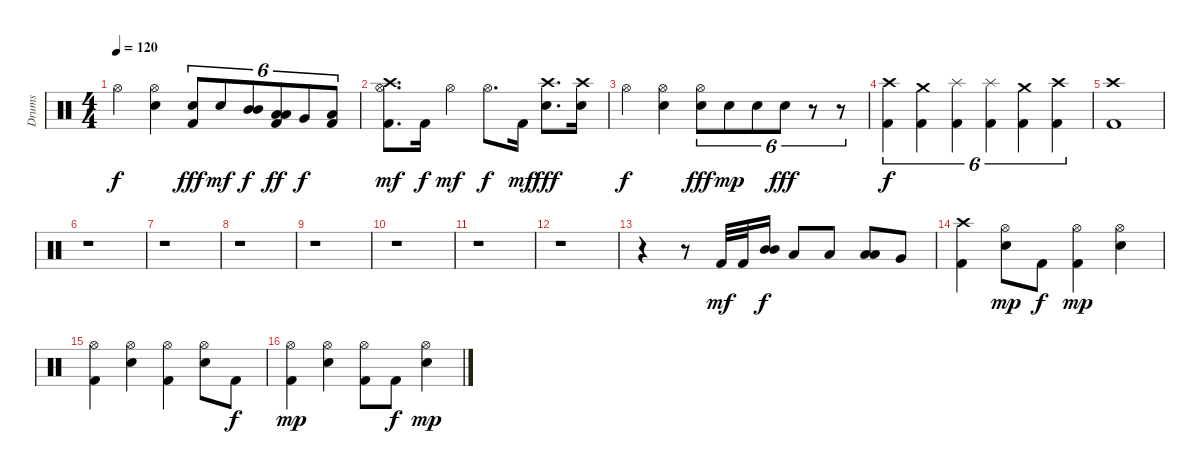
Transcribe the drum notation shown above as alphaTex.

\track ("Drums" "Drums") {instrument percussion}
\staff {score}
\articulation defaults
\ts (4 4)
\tempo 120
\clef neutral
\ks c "Hi-Hat (open)".4{dy f}
("Hi-Hat (open)" "Snare (hit) 2").4 ("Snare (hit) 2" "Kick (hit) 2").8{tu (6 4) bd 60 dy fff} "Snare (hit) 2".8{tu (6 4) dy mf} ("Mid Tom (hit)" "Mid Tom (hit)").8{tu (6 4) bd 120 dy f} ("Low Tom (hit)" "Low Tom (hit)" "Kick (hit) 2").8{tu (6 4) bd 120 dy ff} "Very Low Tom (hit)".8{tu (6 4) dy f} ("Low Floor Tom (hit)" "Kick (hit) 2").8{tu (6 4)} |
("Hi-Hat (open)" "Crash high (hit)" "Kick (hit) 2").8{d dy mf} "Kick (hit) 2".16{dy f} "Hi-Hat (open)".4{dy mf} "Hi-Hat (open)".8{d dy f} "Kick (hit) 2".16{dy mf} ("Crash high (hit)" "Snare (hit) 2").8{d dy fff} ("Crash high (hit)" "Snare (hit) 2").16 |
"Hi-Hat (open)".4{dy f} ("Hi-Hat (open)" "Snare (hit) 2").4 ("Hi-Hat (open)" "Snare (hit) 2").8{tu (6 4) dy fff} "Snare (hit) 2".8{tu (6 4) dy mp} "Snare (hit) 2".8{tu (6 4)} "Snare (hit) 2".8{tu (6 4) dy fff} r.8{tu (6 4)} r.8{tu (6 4)} |
("Crash high (hit)" "Kick (hit) 2").4{tu (6 4) dy f} ("Crash medium (hit)" "Kick (hit) 2").4{tu (6 4)} ("Splash (hit)" "Kick (hit) 2").4{tu (6 4)} ("Splash (hit)" "Kick (hit) 2").4{tu (6 4)} ("Crash medium (hit)" "Kick (hit) 2").4{tu (6 4)} ("Crash high (hit)" "Kick (hit) 2").4{tu (6 4)} |
("Crash high (hit)" "Kick (hit) 2").1 |
r.1 |
r.1 |
r.1 |
r.1 |
r.1 |
r.1 |
r.1 |
r.4{volume 9} r.8 "Kick (hit) 2".32{dy mf} "Kick (hit) 2".32 ("Mid Tom (hit)" "Mid Tom (hit)").16{dy f} "Low Tom (hit)".8 "Low Tom (hit)".8 ("Low Tom (hit)" "Low Tom (hit)").8 "Very Low Tom (hit)".8 |
("Crash high (hit)" "Kick (hit) 2").4 ("Hi-Hat (open)" "Snare (hit) 2").8{dy mp} "Kick (hit) 2".8{dy f} ("Hi-Hat (open)" "Kick (hit) 2").4{dy mp} ("Hi-Hat (open)" "Snare (hit) 2").4 |
("Hi-Hat (open)" "Kick (hit) 2").4 ("Hi-Hat (open)" "Snare (hit) 2").4 ("Hi-Hat (open)" "Kick (hit) 2").4 ("Hi-Hat (open)" "Snare (hit) 2").8 "Kick (hit) 2".8{dy f} |
("Hi-Hat (open)" "Kick (hit) 2").4{dy mp} ("Hi-Hat (open)" "Snare (hit) 2").4 ("Hi-Hat (open)" "Kick (hit) 2").8 "Kick (hit) 2".8{dy f} ("Hi-Hat (open)" "Snare (hit) 2").4{dy mp}
